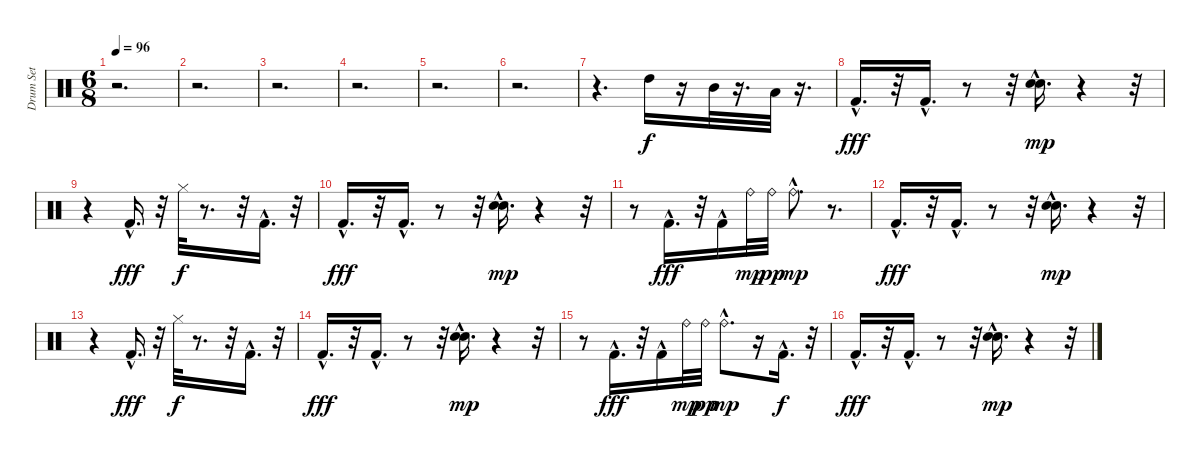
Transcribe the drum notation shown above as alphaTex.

\track ("Drum Set" "Drum Set") {instrument percussion}
\staff {score}
\articulation defaults
\ts (6 8)
\tempo 96
\clef neutral
\ks c
r.2{d dy mp} |
r.2{d} |
r.2{d} |
r.2{d} |
r.2{d} |
r.2{d} |
r.4{d} "High Tom (hit)".16{dy f} r.16 "Mid Tom (hit)".32 r.16{d} "Low Tom (hit)".32 r.16{d} |
"Kick (hit) 2"{hac}.16{d dy fff} r.32 "Kick (hit) 2"{hac}.16{d} r.8 r.32 ("Snare (hit) 2"{hac} "Electric Snare (hit)"{hac}).16{d dy mp} r.4 r.32 |
r.4 "Kick (hit) 2"{hac}.16{d dy fff} r.32 "Hi-Hat (closed)".32{dy f} r.8{d} r.32 "Kick (hit) 2"{hac}.16{d} r.32 |
"Kick (hit) 2"{hac}.16{d dy fff} r.32 "Kick (hit) 2"{hac}.16{d} r.8 r.32 ("Snare (hit) 2"{hac} "Electric Snare (hit)"{hac}).16{d dy mp} r.4 r.32 |
r.8 "Kick (hit) 2"{hac}.16{d dy fff} r.32 "Kick (hit) 2"{hac}.16 "Ride (bell)".32{dy mp} "Ride (bell)".32{dy pp} "Ride (bell)"{hac}.8{d dy mp} r.8{d} |
"Kick (hit) 2"{hac}.16{d dy fff} r.32 "Kick (hit) 2"{hac}.16{d} r.8 r.32 ("Snare (hit) 2"{hac} "Electric Snare (hit)"{hac}).16{d dy mp} r.4 r.32 |
r.4 "Kick (hit) 2"{hac}.16{d dy fff} r.32 "Hi-Hat (closed)".32{dy f} r.8{d} r.32 "Kick (hit) 2"{hac}.16{d} r.32 |
"Kick (hit) 2"{hac}.16{d dy fff} r.32 "Kick (hit) 2"{hac}.16{d} r.8 r.32 ("Snare (hit) 2"{hac} "Electric Snare (hit)"{hac}).16{d dy mp} r.4 r.32 |
r.8 "Kick (hit) 2"{hac}.16{d dy fff} r.32 "Kick (hit) 2"{hac}.16 "Ride (bell)".32{dy mp} "Ride (bell)".32{dy pp} "Ride (bell)"{hac}.8{d dy mp} r.16 "Kick (hit) 2"{hac}.16{d dy f} r.32 |
"Kick (hit) 2"{hac}.16{d dy fff} r.32 "Kick (hit) 2"{hac}.16{d} r.8 r.32 ("Snare (hit) 2"{hac} "Electric Snare (hit)"{hac}).16{d dy mp} r.4 r.32
